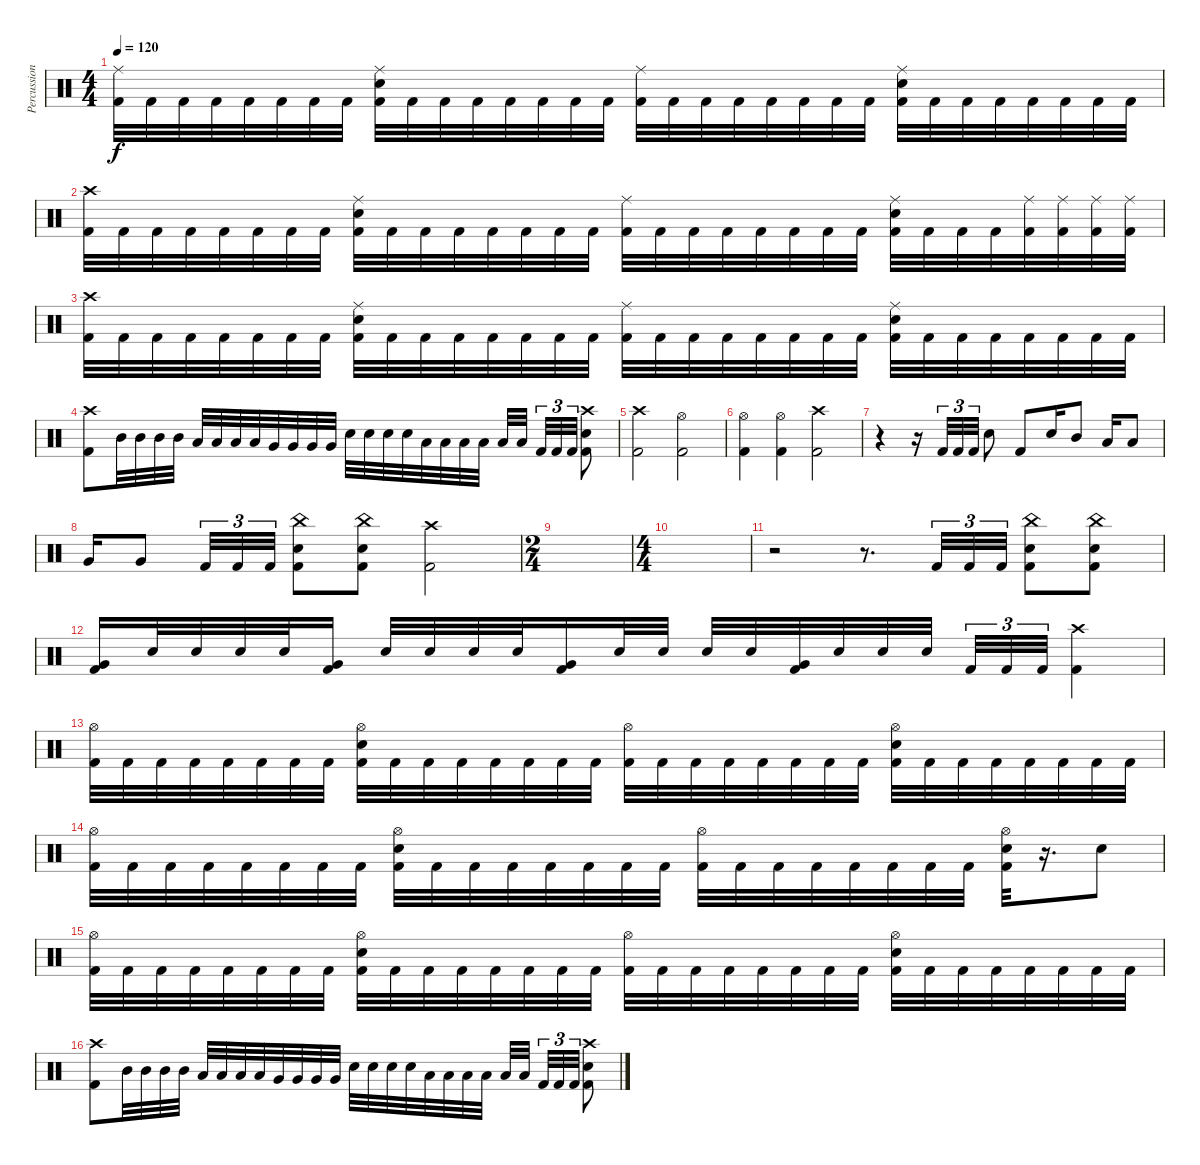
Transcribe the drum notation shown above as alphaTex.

\track ("Percussion" "Percussion") {instrument percussion}
\staff {score}
\articulation defaults
\ts (4 4)
\tempo 120
\clef neutral
\ks c
("Ride (middle)" "Kick (hit) 2").32{dy f} "Kick (hit) 2".32 "Kick (hit) 2".32 "Kick (hit) 2".32 "Kick (hit) 2".32 "Kick (hit) 2".32 "Kick (hit) 2".32 "Kick (hit) 2".32 ("Ride (middle)" "Snare (hit) 2" "Kick (hit) 2").32 "Kick (hit) 2".32 "Kick (hit) 2".32 "Kick (hit) 2".32 "Kick (hit) 2".32 "Kick (hit) 2".32 "Kick (hit) 2".32 "Kick (hit) 2".32 ("Ride (middle)" "Kick (hit) 2").32 "Kick (hit) 2".32 "Kick (hit) 2".32 "Kick (hit) 2".32 "Kick (hit) 2".32 "Kick (hit) 2".32 "Kick (hit) 2".32 "Kick (hit) 2".32 ("Ride (middle)" "Snare (hit) 2" "Kick (hit) 2").32 "Kick (hit) 2".32 "Kick (hit) 2".32 "Kick (hit) 2".32 "Kick (hit) 2".32 "Kick (hit) 2".32 "Kick (hit) 2".32 "Kick (hit) 2".32 |
("Crash high (hit)" "Kick (hit) 2").32 "Kick (hit) 2".32 "Kick (hit) 2".32 "Kick (hit) 2".32 "Kick (hit) 2".32 "Kick (hit) 2".32 "Kick (hit) 2".32 "Kick (hit) 2".32 ("Ride (middle)" "Snare (hit) 2" "Kick (hit) 2").32 "Kick (hit) 2".32 "Kick (hit) 2".32 "Kick (hit) 2".32 "Kick (hit) 2".32 "Kick (hit) 2".32 "Kick (hit) 2".32 "Kick (hit) 2".32 ("Ride (middle)" "Kick (hit) 2").32 "Kick (hit) 2".32 "Kick (hit) 2".32 "Kick (hit) 2".32 "Kick (hit) 2".32 "Kick (hit) 2".32 "Kick (hit) 2".32 "Kick (hit) 2".32 ("Ride (middle)" "Snare (hit) 2" "Kick (hit) 2").32 "Kick (hit) 2".32 "Kick (hit) 2".32 "Kick (hit) 2".32 ("Ride (middle)" "Kick (hit) 2").32 ("Ride (middle)" "Kick (hit) 2").32 ("Ride (middle)" "Kick (hit) 2").32 ("Ride (middle)" "Kick (hit) 2").32 |
("Crash high (hit)" "Kick (hit) 2").32 "Kick (hit) 2".32 "Kick (hit) 2".32 "Kick (hit) 2".32 "Kick (hit) 2".32 "Kick (hit) 2".32 "Kick (hit) 2".32 "Kick (hit) 2".32 ("Ride (middle)" "Snare (hit) 2" "Kick (hit) 2").32 "Kick (hit) 2".32 "Kick (hit) 2".32 "Kick (hit) 2".32 "Kick (hit) 2".32 "Kick (hit) 2".32 "Kick (hit) 2".32 "Kick (hit) 2".32 ("Ride (middle)" "Kick (hit) 2").32 "Kick (hit) 2".32 "Kick (hit) 2".32 "Kick (hit) 2".32 "Kick (hit) 2".32 "Kick (hit) 2".32 "Kick (hit) 2".32 "Kick (hit) 2".32 ("Ride (middle)" "Snare (hit) 2" "Kick (hit) 2").32 "Kick (hit) 2".32 "Kick (hit) 2".32 "Kick (hit) 2".32 "Kick (hit) 2".32 "Kick (hit) 2".32 "Kick (hit) 2".32 "Kick (hit) 2".32 |
("Crash high (hit)" "Kick (hit) 2").8 "Mid Tom (hit)".32 "Mid Tom (hit)".32 "Mid Tom (hit)".32 "Mid Tom (hit)".32 "Low Tom (hit)".32 "Low Tom (hit)".32 "Low Tom (hit)".32 "Low Tom (hit)".32 "Very Low Tom (hit)".32 "Very Low Tom (hit)".32 "Very Low Tom (hit)".32 "Very Low Tom (hit)".32 "Snare (hit) 2".32 "Snare (hit) 2".32 "Snare (hit) 2".32 "Snare (hit) 2".32 "Low Tom (hit)".32 "Low Tom (hit)".32 "Low Tom (hit)".32 "Low Tom (hit)".32 "Low Tom (hit)".32 "Low Tom (hit)".32 "Kick (hit) 2".32{tu (3 2)} "Kick (hit) 2".32{tu (3 2)} "Kick (hit) 2".32{tu (3 2)} ("Crash high (hit)" "Snare (hit) 2" "Kick (hit) 2").8 |
("Crash high (hit)" "Kick (hit) 2").2 ("Hi-Hat (open)" "Kick (hit) 2").2 |
("Hi-Hat (open)" "Kick (hit) 2").4 ("Hi-Hat (open)" "Kick (hit) 2").4 ("Crash high (hit)" "Kick (hit) 2").2 |
r.4 r.16 "Kick (hit) 2".32{tu (3 2)} "Kick (hit) 2".32{tu (3 2)} "Kick (hit) 2".32{tu (3 2)} "Snare (hit) 2".8 "Kick (hit) 2".8 "Snare (hit) 2".16 "Mid Tom (hit)".8 "Low Tom (hit)".16 "Low Tom (hit)".8 |
"Very Low Tom (hit)".16 "Very Low Tom (hit)".8 "Kick (hit) 2".32{tu (3 2)} "Kick (hit) 2".32{tu (3 2)} "Kick (hit) 2".32{tu (3 2)} ("China (hit)" "Snare (hit) 2" "Kick (hit) 2").8 ("China (hit)" "Snare (hit) 2" "Kick (hit) 2").8 ("Crash high (hit)" "Kick (hit) 2").2 |
\ts (2 4)
|
\ts (4 4)
|
r.2 r.8{d} "Kick (hit) 2".32{tu (3 2)} "Kick (hit) 2".32{tu (3 2)} "Kick (hit) 2".32{tu (3 2)} ("China (hit)" "Snare (hit) 2" "Kick (hit) 2").8 ("China (hit)" "Snare (hit) 2" "Kick (hit) 2").8 |
("Very Low Tom (hit)" "Kick (hit) 2").16 "Snare (hit) 2".32 "Snare (hit) 2".32 "Snare (hit) 2".32 "Snare (hit) 2".32 ("Very Low Tom (hit)" "Kick (hit) 2").16 "Snare (hit) 2".32 "Snare (hit) 2".32 "Snare (hit) 2".32 "Snare (hit) 2".32 ("Very Low Tom (hit)" "Kick (hit) 2").16 "Snare (hit) 2".32 "Snare (hit) 2".32 "Snare (hit) 2".32 "Snare (hit) 2".32 ("Very Low Tom (hit)" "Kick (hit) 2").32 "Snare (hit) 2".32 "Snare (hit) 2".32 "Snare (hit) 2".32 "Kick (hit) 2".32{tu (3 2)} "Kick (hit) 2".32{tu (3 2)} "Kick (hit) 2".32{tu (3 2)} ("Crash high (hit)" "Kick (hit) 2").4 |
("Hi-Hat (open)" "Kick (hit) 2").32 "Kick (hit) 2".32 "Kick (hit) 2".32 "Kick (hit) 2".32 "Kick (hit) 2".32 "Kick (hit) 2".32 "Kick (hit) 2".32 "Kick (hit) 2".32 ("Hi-Hat (open)" "Snare (hit) 2" "Kick (hit) 2").32 "Kick (hit) 2".32 "Kick (hit) 2".32 "Kick (hit) 2".32 "Kick (hit) 2".32 "Kick (hit) 2".32 "Kick (hit) 2".32 "Kick (hit) 2".32 ("Hi-Hat (open)" "Kick (hit) 2").32 "Kick (hit) 2".32 "Kick (hit) 2".32 "Kick (hit) 2".32 "Kick (hit) 2".32 "Kick (hit) 2".32 "Kick (hit) 2".32 "Kick (hit) 2".32 ("Hi-Hat (open)" "Snare (hit) 2" "Kick (hit) 2").32 "Kick (hit) 2".32 "Kick (hit) 2".32 "Kick (hit) 2".32 "Kick (hit) 2".32 "Kick (hit) 2".32 "Kick (hit) 2".32 "Kick (hit) 2".32 |
("Hi-Hat (open)" "Kick (hit) 2").32 "Kick (hit) 2".32 "Kick (hit) 2".32 "Kick (hit) 2".32 "Kick (hit) 2".32 "Kick (hit) 2".32 "Kick (hit) 2".32 "Kick (hit) 2".32 ("Hi-Hat (open)" "Snare (hit) 2" "Kick (hit) 2").32 "Kick (hit) 2".32 "Kick (hit) 2".32 "Kick (hit) 2".32 "Kick (hit) 2".32 "Kick (hit) 2".32 "Kick (hit) 2".32 "Kick (hit) 2".32 ("Hi-Hat (open)" "Kick (hit) 2").32 "Kick (hit) 2".32 "Kick (hit) 2".32 "Kick (hit) 2".32 "Kick (hit) 2".32 "Kick (hit) 2".32 "Kick (hit) 2".32 "Kick (hit) 2".32 ("Hi-Hat (open)" "Snare (hit) 2" "Kick (hit) 2").32 r.16{d} "Snare (hit) 2".8 |
("Hi-Hat (open)" "Kick (hit) 2").32 "Kick (hit) 2".32 "Kick (hit) 2".32 "Kick (hit) 2".32 "Kick (hit) 2".32 "Kick (hit) 2".32 "Kick (hit) 2".32 "Kick (hit) 2".32 ("Hi-Hat (open)" "Snare (hit) 2" "Kick (hit) 2").32 "Kick (hit) 2".32 "Kick (hit) 2".32 "Kick (hit) 2".32 "Kick (hit) 2".32 "Kick (hit) 2".32 "Kick (hit) 2".32 "Kick (hit) 2".32 ("Hi-Hat (open)" "Kick (hit) 2").32 "Kick (hit) 2".32 "Kick (hit) 2".32 "Kick (hit) 2".32 "Kick (hit) 2".32 "Kick (hit) 2".32 "Kick (hit) 2".32 "Kick (hit) 2".32 ("Hi-Hat (open)" "Snare (hit) 2" "Kick (hit) 2").32 "Kick (hit) 2".32 "Kick (hit) 2".32 "Kick (hit) 2".32 "Kick (hit) 2".32 "Kick (hit) 2".32 "Kick (hit) 2".32 "Kick (hit) 2".32 |
("Crash high (hit)" "Kick (hit) 2").8 "Mid Tom (hit)".32 "Mid Tom (hit)".32 "Mid Tom (hit)".32 "Mid Tom (hit)".32 "Low Tom (hit)".32 "Low Tom (hit)".32 "Low Tom (hit)".32 "Low Tom (hit)".32 "Very Low Tom (hit)".32 "Very Low Tom (hit)".32 "Very Low Tom (hit)".32 "Very Low Tom (hit)".32 "Snare (hit) 2".32 "Snare (hit) 2".32 "Snare (hit) 2".32 "Snare (hit) 2".32 "Low Tom (hit)".32 "Low Tom (hit)".32 "Low Tom (hit)".32 "Low Tom (hit)".32 "Low Tom (hit)".32 "Low Tom (hit)".32 "Kick (hit) 2".32{tu (3 2)} "Kick (hit) 2".32{tu (3 2)} "Kick (hit) 2".32{tu (3 2)} ("Crash high (hit)" "Snare (hit) 2" "Kick (hit) 2").8
